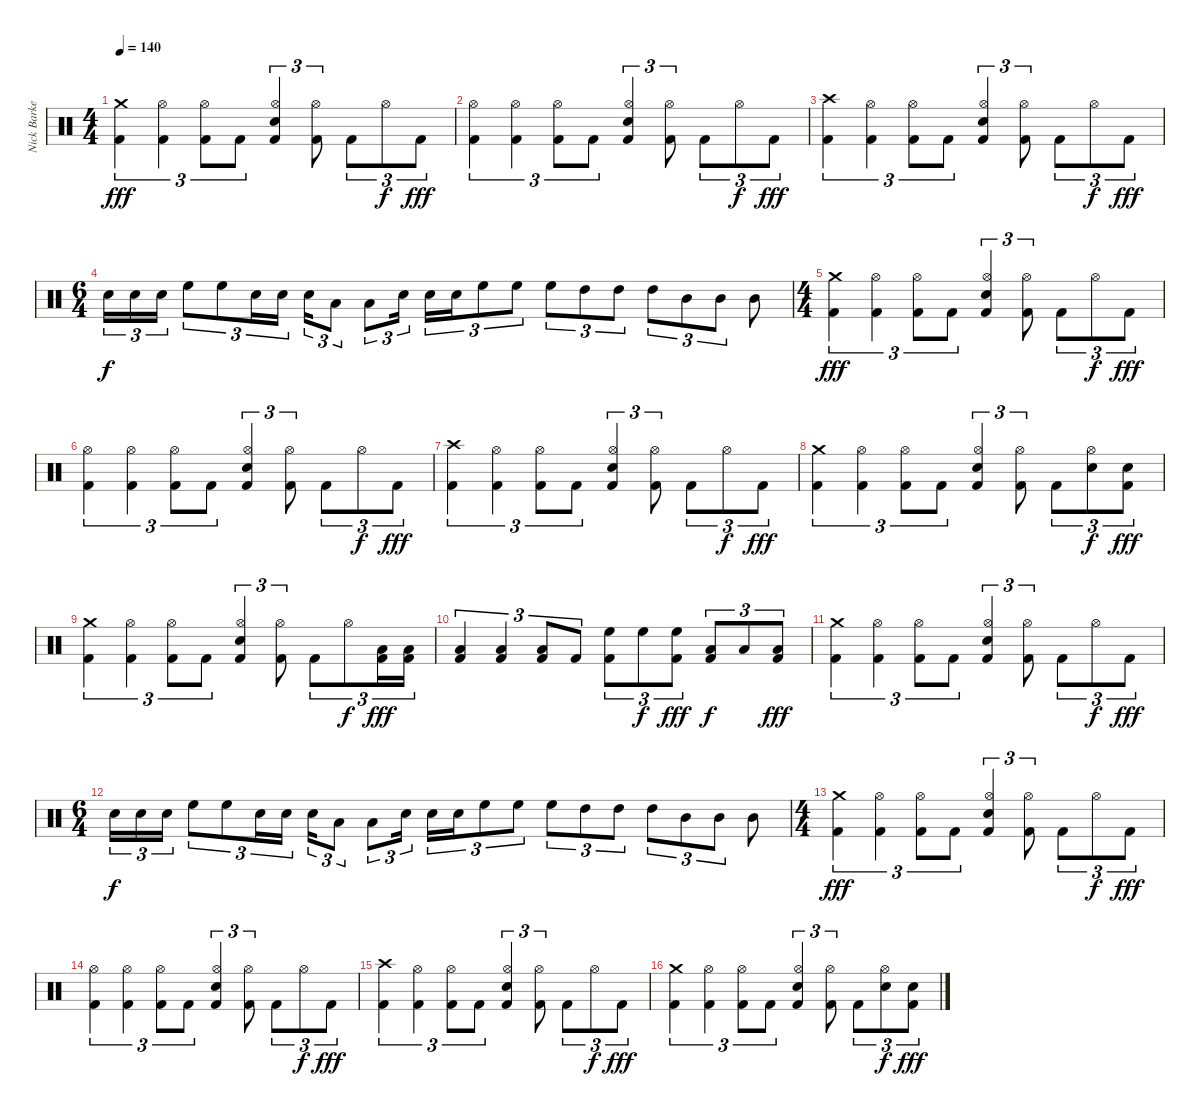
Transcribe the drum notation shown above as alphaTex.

\track ("Nick Barker - Drums - Percussion" "Nick Barke") {instrument percussion}
\staff {score}
\articulation defaults
\ts (4 4)
\tempo 140
\clef neutral
\ks c
("Kick (hit) 2" "Crash medium (hit)").4{tu (3 2) dy fff} ("Kick (hit) 2" "Hi-Hat (open)").4{tu (3 2)} ("Kick (hit) 2" "Hi-Hat (open)").8{tu (3 2)} "Kick (hit) 2".8{tu (3 2)} ("Kick (hit) 2" "Snare (hit) 2" "Hi-Hat (open)").4{tu (3 2)} ("Kick (hit) 2" "Hi-Hat (open)").8{tu (3 2)} "Kick (hit) 2".8{tu (3 2)} "Hi-Hat (open)".8{tu (3 2) dy f} "Kick (hit) 2".8{tu (3 2) dy fff} |
("Kick (hit) 2" "Hi-Hat (open)").4{tu (3 2)} ("Kick (hit) 2" "Hi-Hat (open)").4{tu (3 2)} ("Kick (hit) 2" "Hi-Hat (open)").8{tu (3 2)} "Kick (hit) 2".8{tu (3 2)} ("Kick (hit) 2" "Snare (hit) 2" "Hi-Hat (open)").4{tu (3 2)} ("Kick (hit) 2" "Hi-Hat (open)").8{tu (3 2)} "Kick (hit) 2".8{tu (3 2)} "Hi-Hat (open)".8{tu (3 2) dy f} "Kick (hit) 2".8{tu (3 2) dy fff} |
("Kick (hit) 2" "Crash high (hit)").4{tu (3 2)} ("Kick (hit) 2" "Hi-Hat (open)").4{tu (3 2)} ("Kick (hit) 2" "Hi-Hat (open)").8{tu (3 2)} "Kick (hit) 2".8{tu (3 2)} ("Kick (hit) 2" "Snare (hit) 2" "Hi-Hat (open)").4{tu (3 2)} ("Kick (hit) 2" "Hi-Hat (open)").8{tu (3 2)} "Kick (hit) 2".8{tu (3 2)} "Hi-Hat (open)".8{tu (3 2) dy f} "Kick (hit) 2".8{tu (3 2) dy fff} |
\ts (6 4)
"Snare (hit) 2".16{tu (3 2) dy f} "Snare (hit) 2".16{tu (3 2)} "Snare (hit) 2".16{tu (3 2)} "High Floor Tom (hit)".8{tu (3 2)} "High Floor Tom (hit)".8{tu (3 2)} "Snare (hit) 2".16{tu (3 2)} "Snare (hit) 2".16{tu (3 2)} "Snare (hit) 2".16{tu (3 2)} "Low Tom (hit)".8{tu (3 2)} "Low Tom (hit)".8{tu (3 2)} "Snare (hit) 2".16{tu (3 2)} "Snare (hit) 2".16{tu (3 2)} "Snare (hit) 2".16{tu (3 2)} "High Floor Tom (hit)".8{tu (3 2)} "High Floor Tom (hit)".8{tu (3 2)} "High Floor Tom (hit)".8{tu (3 2)} "High Tom (hit)".8{tu (3 2)} "High Tom (hit)".8{tu (3 2)} "High Tom (hit)".8{tu (3 2)} "Mid Tom (hit)".8{tu (3 2)} "Mid Tom (hit)".8{tu (3 2)} "Mid Tom (hit)".8 |
\ts (4 4)
("Kick (hit) 2" "Crash medium (hit)").4{tu (3 2) dy fff} ("Kick (hit) 2" "Hi-Hat (open)").4{tu (3 2)} ("Kick (hit) 2" "Hi-Hat (open)").8{tu (3 2)} "Kick (hit) 2".8{tu (3 2)} ("Kick (hit) 2" "Snare (hit) 2" "Hi-Hat (open)").4{tu (3 2)} ("Kick (hit) 2" "Hi-Hat (open)").8{tu (3 2)} "Kick (hit) 2".8{tu (3 2)} "Hi-Hat (open)".8{tu (3 2) dy f} "Kick (hit) 2".8{tu (3 2) dy fff} |
("Kick (hit) 2" "Hi-Hat (open)").4{tu (3 2)} ("Kick (hit) 2" "Hi-Hat (open)").4{tu (3 2)} ("Kick (hit) 2" "Hi-Hat (open)").8{tu (3 2)} "Kick (hit) 2".8{tu (3 2)} ("Kick (hit) 2" "Snare (hit) 2" "Hi-Hat (open)").4{tu (3 2)} ("Kick (hit) 2" "Hi-Hat (open)").8{tu (3 2)} "Kick (hit) 2".8{tu (3 2)} "Hi-Hat (open)".8{tu (3 2) dy f} "Kick (hit) 2".8{tu (3 2) dy fff} |
("Kick (hit) 2" "Crash high (hit)").4{tu (3 2)} ("Kick (hit) 2" "Hi-Hat (open)").4{tu (3 2)} ("Kick (hit) 2" "Hi-Hat (open)").8{tu (3 2)} "Kick (hit) 2".8{tu (3 2)} ("Kick (hit) 2" "Snare (hit) 2" "Hi-Hat (open)").4{tu (3 2)} ("Kick (hit) 2" "Hi-Hat (open)").8{tu (3 2)} "Kick (hit) 2".8{tu (3 2)} "Hi-Hat (open)".8{tu (3 2) dy f} "Kick (hit) 2".8{tu (3 2) dy fff} |
("Kick (hit) 2" "Crash medium (hit)").4{tu (3 2)} ("Kick (hit) 2" "Hi-Hat (open)").4{tu (3 2)} ("Kick (hit) 2" "Hi-Hat (open)").8{tu (3 2)} "Kick (hit) 2".8{tu (3 2)} ("Kick (hit) 2" "Snare (hit) 2" "Hi-Hat (open)").4{tu (3 2)} ("Kick (hit) 2" "Hi-Hat (open)").8{tu (3 2)} "Kick (hit) 2".8{tu (3 2)} ("Snare (hit) 2" "Hi-Hat (open)").8{tu (3 2) dy f} ("Kick (hit) 2" "Snare (hit) 2").8{tu (3 2) dy fff} |
("Kick (hit) 2" "Crash medium (hit)").4{tu (3 2)} ("Kick (hit) 2" "Hi-Hat (open)").4{tu (3 2)} ("Kick (hit) 2" "Hi-Hat (open)").8{tu (3 2)} "Kick (hit) 2".8{tu (3 2)} ("Kick (hit) 2" "Snare (hit) 2" "Hi-Hat (open)").4{tu (3 2)} ("Kick (hit) 2" "Hi-Hat (open)").8{tu (3 2)} "Kick (hit) 2".8{tu (3 2)} "Hi-Hat (open)".8{tu (3 2) dy f} ("Kick (hit) 2" "Low Tom (hit)").16{tu (3 2) dy fff} ("Kick (hit) 2" "Low Tom (hit)").16{tu (3 2)} |
("Kick (hit) 2" "Low Tom (hit)").4{tu (3 2)} ("Kick (hit) 2" "Low Floor Tom (hit)").4{tu (3 2)} ("Kick (hit) 2" "Low Floor Tom (hit)").8{tu (3 2)} "Kick (hit) 2".8{tu (3 2)} ("Kick (hit) 2" "High Floor Tom (hit)").8{tu (3 2)} "High Floor Tom (hit)".8{tu (3 2) dy f} ("Kick (hit) 2" "High Floor Tom (hit)").8{tu (3 2) dy fff} ("Kick (hit) 2" "Low Tom (hit)").8{tu (3 2) dy f} "Low Tom (hit)".8{tu (3 2)} ("Kick (hit) 2" "Low Tom (hit)").8{tu (3 2) dy fff} |
("Kick (hit) 2" "Crash medium (hit)").4{tu (3 2)} ("Kick (hit) 2" "Hi-Hat (open)").4{tu (3 2)} ("Kick (hit) 2" "Hi-Hat (open)").8{tu (3 2)} "Kick (hit) 2".8{tu (3 2)} ("Kick (hit) 2" "Snare (hit) 2" "Hi-Hat (open)").4{tu (3 2)} ("Kick (hit) 2" "Hi-Hat (open)").8{tu (3 2)} "Kick (hit) 2".8{tu (3 2)} "Hi-Hat (open)".8{tu (3 2) dy f} "Kick (hit) 2".8{tu (3 2) dy fff} |
\ts (6 4)
"Snare (hit) 2".16{tu (3 2) dy f} "Snare (hit) 2".16{tu (3 2)} "Snare (hit) 2".16{tu (3 2)} "High Floor Tom (hit)".8{tu (3 2)} "High Floor Tom (hit)".8{tu (3 2)} "Snare (hit) 2".16{tu (3 2)} "Snare (hit) 2".16{tu (3 2)} "Snare (hit) 2".16{tu (3 2)} "Low Tom (hit)".8{tu (3 2)} "Low Tom (hit)".8{tu (3 2)} "Snare (hit) 2".16{tu (3 2)} "Snare (hit) 2".16{tu (3 2)} "Snare (hit) 2".16{tu (3 2)} "High Floor Tom (hit)".8{tu (3 2)} "High Floor Tom (hit)".8{tu (3 2)} "High Floor Tom (hit)".8{tu (3 2)} "High Tom (hit)".8{tu (3 2)} "High Tom (hit)".8{tu (3 2)} "High Tom (hit)".8{tu (3 2)} "Mid Tom (hit)".8{tu (3 2)} "Mid Tom (hit)".8{tu (3 2)} "Mid Tom (hit)".8 |
\ts (4 4)
("Kick (hit) 2" "Crash medium (hit)").4{tu (3 2) dy fff} ("Kick (hit) 2" "Hi-Hat (open)").4{tu (3 2)} ("Kick (hit) 2" "Hi-Hat (open)").8{tu (3 2)} "Kick (hit) 2".8{tu (3 2)} ("Kick (hit) 2" "Snare (hit) 2" "Hi-Hat (open)").4{tu (3 2)} ("Kick (hit) 2" "Hi-Hat (open)").8{tu (3 2)} "Kick (hit) 2".8{tu (3 2)} "Hi-Hat (open)".8{tu (3 2) dy f} "Kick (hit) 2".8{tu (3 2) dy fff} |
("Kick (hit) 2" "Hi-Hat (open)").4{tu (3 2)} ("Kick (hit) 2" "Hi-Hat (open)").4{tu (3 2)} ("Kick (hit) 2" "Hi-Hat (open)").8{tu (3 2)} "Kick (hit) 2".8{tu (3 2)} ("Kick (hit) 2" "Snare (hit) 2" "Hi-Hat (open)").4{tu (3 2)} ("Kick (hit) 2" "Hi-Hat (open)").8{tu (3 2)} "Kick (hit) 2".8{tu (3 2)} "Hi-Hat (open)".8{tu (3 2) dy f} "Kick (hit) 2".8{tu (3 2) dy fff} |
("Kick (hit) 2" "Crash high (hit)").4{tu (3 2)} ("Kick (hit) 2" "Hi-Hat (open)").4{tu (3 2)} ("Kick (hit) 2" "Hi-Hat (open)").8{tu (3 2)} "Kick (hit) 2".8{tu (3 2)} ("Kick (hit) 2" "Snare (hit) 2" "Hi-Hat (open)").4{tu (3 2)} ("Kick (hit) 2" "Hi-Hat (open)").8{tu (3 2)} "Kick (hit) 2".8{tu (3 2)} "Hi-Hat (open)".8{tu (3 2) dy f} "Kick (hit) 2".8{tu (3 2) dy fff} |
("Kick (hit) 2" "Crash medium (hit)").4{tu (3 2)} ("Kick (hit) 2" "Hi-Hat (open)").4{tu (3 2)} ("Kick (hit) 2" "Hi-Hat (open)").8{tu (3 2)} "Kick (hit) 2".8{tu (3 2)} ("Kick (hit) 2" "Snare (hit) 2" "Hi-Hat (open)").4{tu (3 2)} ("Kick (hit) 2" "Hi-Hat (open)").8{tu (3 2)} "Kick (hit) 2".8{tu (3 2)} ("Snare (hit) 2" "Hi-Hat (open)").8{tu (3 2) dy f} ("Kick (hit) 2" "Snare (hit) 2").8{tu (3 2) dy fff}
